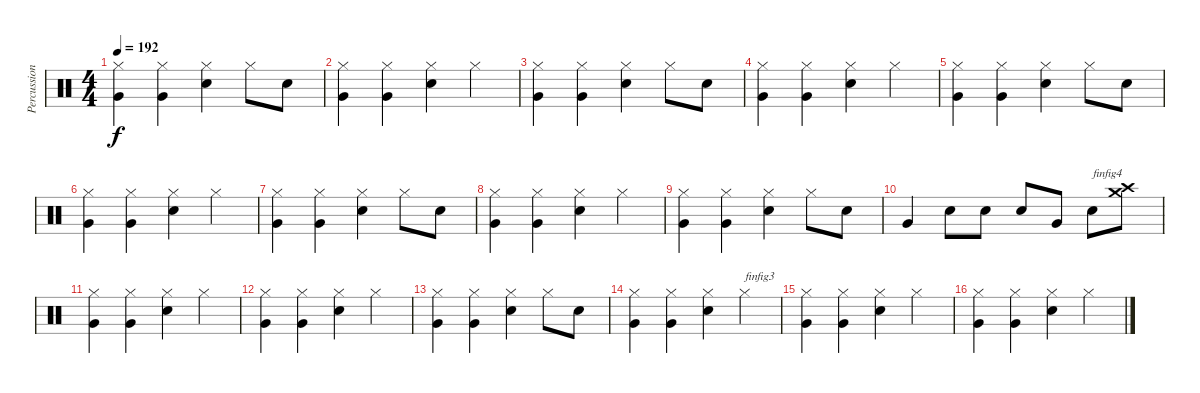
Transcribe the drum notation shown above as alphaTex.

\track ("Percussions" "Percussion") {instrument percussion}
\staff {score}
\articulation defaults
\ts (4 4)
\tempo 192
\clef neutral
\ks c
("Very Low Tom (hit)" "Hi-Hat (closed)").4{dy f} ("Very Low Tom (hit)" "Hi-Hat (closed)").4 ("Snare (hit) 2" "Hi-Hat (closed)").4 "Hi-Hat (closed)".8 "Snare (hit) 2".8 |
("Very Low Tom (hit)" "Hi-Hat (closed)").4 ("Very Low Tom (hit)" "Hi-Hat (closed)").4 ("Snare (hit) 2" "Hi-Hat (closed)").4 "Hi-Hat (closed)".4 |
("Very Low Tom (hit)" "Hi-Hat (closed)").4 ("Very Low Tom (hit)" "Hi-Hat (closed)").4 ("Snare (hit) 2" "Hi-Hat (closed)").4 "Hi-Hat (closed)".8 "Snare (hit) 2".8 |
("Very Low Tom (hit)" "Hi-Hat (closed)").4 ("Very Low Tom (hit)" "Hi-Hat (closed)").4 ("Snare (hit) 2" "Hi-Hat (closed)").4 "Hi-Hat (closed)".4 |
("Very Low Tom (hit)" "Hi-Hat (closed)").4 ("Very Low Tom (hit)" "Hi-Hat (closed)").4 ("Snare (hit) 2" "Hi-Hat (closed)").4 "Hi-Hat (closed)".8 "Snare (hit) 2".8 |
("Very Low Tom (hit)" "Hi-Hat (closed)").4 ("Very Low Tom (hit)" "Hi-Hat (closed)").4 ("Snare (hit) 2" "Hi-Hat (closed)").4 "Hi-Hat (closed)".4 |
("Very Low Tom (hit)" "Hi-Hat (closed)").4 ("Very Low Tom (hit)" "Hi-Hat (closed)").4 ("Snare (hit) 2" "Hi-Hat (closed)").4 "Hi-Hat (closed)".8 "Snare (hit) 2".8 |
("Very Low Tom (hit)" "Hi-Hat (closed)").4 ("Very Low Tom (hit)" "Hi-Hat (closed)").4 ("Snare (hit) 2" "Hi-Hat (closed)").4 "Hi-Hat (closed)".4 |
("Very Low Tom (hit)" "Hi-Hat (closed)").4 ("Very Low Tom (hit)" "Hi-Hat (closed)").4 ("Snare (hit) 2" "Hi-Hat (closed)").4 "Hi-Hat (closed)".8 "Snare (hit) 2".8 |
"Very Low Tom (hit)".4 "Snare (hit) 2".8 "Snare (hit) 2".8 "Snare (hit) 2".8 "Very Low Tom (hit)".8 "Snare (hit) 2".8{txt "finfig4"} ("Crash high (hit)" "Crash medium (hit)").8 |
("Very Low Tom (hit)" "Hi-Hat (closed)").4 ("Very Low Tom (hit)" "Hi-Hat (closed)").4 ("Snare (hit) 2" "Hi-Hat (closed)").4 "Hi-Hat (closed)".4 |
("Very Low Tom (hit)" "Hi-Hat (closed)").4 ("Very Low Tom (hit)" "Hi-Hat (closed)").4 ("Snare (hit) 2" "Hi-Hat (closed)").4 "Hi-Hat (closed)".4 |
("Very Low Tom (hit)" "Hi-Hat (closed)").4 ("Very Low Tom (hit)" "Hi-Hat (closed)").4 ("Snare (hit) 2" "Hi-Hat (closed)").4 "Hi-Hat (closed)".8 "Snare (hit) 2".8 |
("Very Low Tom (hit)" "Hi-Hat (closed)").4 ("Very Low Tom (hit)" "Hi-Hat (closed)").4 ("Snare (hit) 2" "Hi-Hat (closed)").4 "Hi-Hat (closed)".4{txt "finfig3"} |
("Very Low Tom (hit)" "Hi-Hat (closed)").4 ("Very Low Tom (hit)" "Hi-Hat (closed)").4 ("Snare (hit) 2" "Hi-Hat (closed)").4 "Hi-Hat (closed)".4 |
("Very Low Tom (hit)" "Hi-Hat (closed)").4 ("Very Low Tom (hit)" "Hi-Hat (closed)").4 ("Snare (hit) 2" "Hi-Hat (closed)").4 "Hi-Hat (closed)".4
